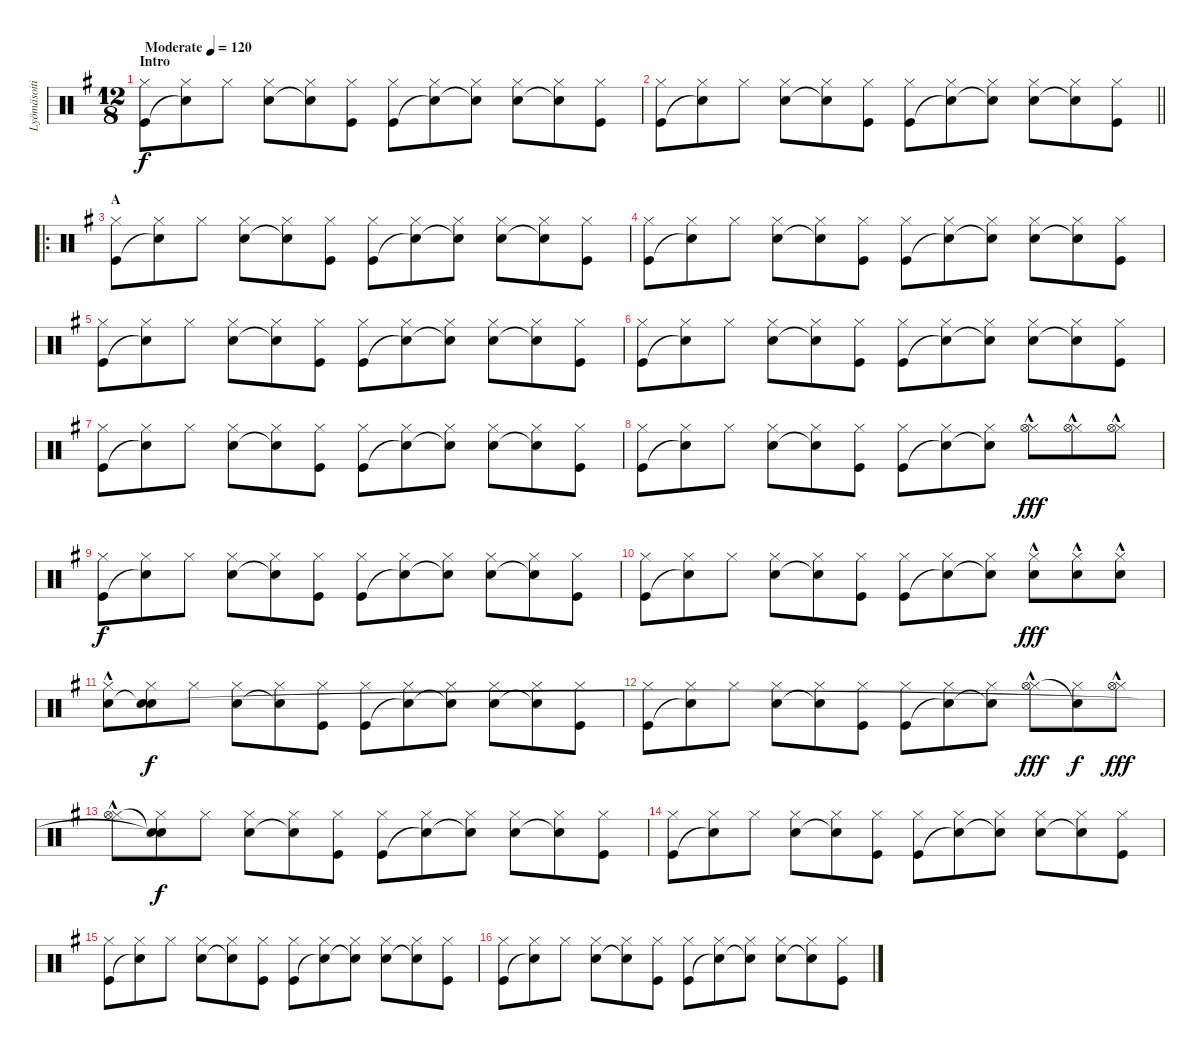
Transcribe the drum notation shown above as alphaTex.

\track ("Lyömäsoitin" "Lyömäsoiti") {instrument percussion}
\staff {score}
\articulation defaults
\ts (12 8)
\section ("" "Intro")
\tempo (120 "Moderate")
\clef neutral
\ks g
("Hi-Hat (closed)" "Kick (hit)").8{dy f} ("Hi-Hat (closed)" "Snare (hit)"{t}).8 "Hi-Hat (closed)".8 ("Hi-Hat (closed)" "Snare (hit) 2").8 ("Hi-Hat (closed)" "Snare (hit)"{t}).8 ("Hi-Hat (closed)" "Kick (hit)").8 ("Hi-Hat (closed)" "Kick (hit)").8 ("Hi-Hat (closed)" "Snare (hit)"{t}).8 ("Hi-Hat (closed)" "Snare (hit)"{t}).8 ("Hi-Hat (closed)" "Snare (hit) 2").8 ("Hi-Hat (closed)" "Snare (hit)"{t}).8 ("Hi-Hat (closed)" "Kick (hit)").8 |
\barLineRight lightlight
("Hi-Hat (closed)" "Kick (hit)").8 ("Hi-Hat (closed)" "Snare (hit)"{t}).8 "Hi-Hat (closed)".8 ("Hi-Hat (closed)" "Snare (hit) 2").8 ("Hi-Hat (closed)" "Snare (hit)"{t}).8 ("Hi-Hat (closed)" "Kick (hit)").8 ("Hi-Hat (closed)" "Kick (hit)").8 ("Hi-Hat (closed)" "Snare (hit)"{t}).8 ("Hi-Hat (closed)" "Snare (hit)"{t}).8 ("Hi-Hat (closed)" "Snare (hit) 2").8 ("Hi-Hat (closed)" "Snare (hit)"{t}).8 ("Hi-Hat (closed)" "Kick (hit)").8 |
\ro
\section ("" "A")
("Hi-Hat (closed)" "Kick (hit)").8 ("Hi-Hat (closed)" "Snare (hit)"{t}).8 "Hi-Hat (closed)".8 ("Hi-Hat (closed)" "Snare (hit) 2").8 ("Hi-Hat (closed)" "Snare (hit)"{t}).8 ("Hi-Hat (closed)" "Kick (hit)").8 ("Hi-Hat (closed)" "Kick (hit)").8 ("Hi-Hat (closed)" "Snare (hit)"{t}).8 ("Hi-Hat (closed)" "Snare (hit)"{t}).8 ("Hi-Hat (closed)" "Snare (hit) 2").8 ("Hi-Hat (closed)" "Snare (hit)"{t}).8 ("Hi-Hat (closed)" "Kick (hit)").8 |
("Hi-Hat (closed)" "Kick (hit)").8 ("Hi-Hat (closed)" "Snare (hit)"{t}).8 "Hi-Hat (closed)".8 ("Hi-Hat (closed)" "Snare (hit) 2").8 ("Hi-Hat (closed)" "Snare (hit)"{t}).8 ("Hi-Hat (closed)" "Kick (hit)").8 ("Hi-Hat (closed)" "Kick (hit)").8 ("Hi-Hat (closed)" "Snare (hit)"{t}).8 ("Hi-Hat (closed)" "Snare (hit)"{t}).8 ("Hi-Hat (closed)" "Snare (hit) 2").8 ("Hi-Hat (closed)" "Snare (hit)"{t}).8 ("Hi-Hat (closed)" "Kick (hit)").8 |
("Hi-Hat (closed)" "Kick (hit)").8 ("Hi-Hat (closed)" "Snare (hit)"{t}).8 "Hi-Hat (closed)".8 ("Hi-Hat (closed)" "Snare (hit) 2").8 ("Hi-Hat (closed)" "Snare (hit)"{t}).8 ("Hi-Hat (closed)" "Kick (hit)").8 ("Hi-Hat (closed)" "Kick (hit)").8 ("Hi-Hat (closed)" "Snare (hit)"{t}).8 ("Hi-Hat (closed)" "Snare (hit)"{t}).8 ("Hi-Hat (closed)" "Snare (hit) 2").8 ("Hi-Hat (closed)" "Snare (hit)"{t}).8 ("Hi-Hat (closed)" "Kick (hit)").8 |
("Hi-Hat (closed)" "Kick (hit)").8 ("Hi-Hat (closed)" "Snare (hit)"{t}).8 "Hi-Hat (closed)".8 ("Hi-Hat (closed)" "Snare (hit) 2").8 ("Hi-Hat (closed)" "Snare (hit)"{t}).8 ("Hi-Hat (closed)" "Kick (hit)").8 ("Hi-Hat (closed)" "Kick (hit)").8 ("Hi-Hat (closed)" "Snare (hit)"{t}).8 ("Hi-Hat (closed)" "Snare (hit)"{t}).8 ("Hi-Hat (closed)" "Snare (hit) 2").8 ("Hi-Hat (closed)" "Snare (hit)"{t}).8 ("Hi-Hat (closed)" "Kick (hit)").8 |
("Hi-Hat (closed)" "Kick (hit)").8 ("Hi-Hat (closed)" "Snare (hit)"{t}).8 "Hi-Hat (closed)".8 ("Hi-Hat (closed)" "Snare (hit) 2").8 ("Hi-Hat (closed)" "Snare (hit)"{t}).8 ("Hi-Hat (closed)" "Kick (hit)").8 ("Hi-Hat (closed)" "Kick (hit)").8 ("Hi-Hat (closed)" "Snare (hit)"{t}).8 ("Hi-Hat (closed)" "Snare (hit)"{t}).8 ("Hi-Hat (closed)" "Snare (hit) 2").8 ("Hi-Hat (closed)" "Snare (hit)"{t}).8 ("Hi-Hat (closed)" "Kick (hit)").8 |
("Hi-Hat (closed)" "Kick (hit)").8 ("Hi-Hat (closed)" "Snare (hit)"{t}).8 "Hi-Hat (closed)".8 ("Hi-Hat (closed)" "Snare (hit) 2").8 ("Hi-Hat (closed)" "Snare (hit)"{t}).8 ("Hi-Hat (closed)" "Kick (hit)").8 ("Hi-Hat (closed)" "Kick (hit)").8 ("Hi-Hat (closed)" "Snare (hit)"{t}).8 ("Hi-Hat (closed)" "Snare (hit)"{t}).8 ("Hi-Hat (closed)"{hac} "Hi-Hat (open)").8{dy fff} ("Hi-Hat (closed)"{hac} "Hi-Hat (open)").8 ("Hi-Hat (closed)"{hac} "Hi-Hat (open)").8 |
("Hi-Hat (closed)" "Kick (hit)").8{dy f} ("Hi-Hat (closed)" "Snare (hit)"{t}).8 "Hi-Hat (closed)".8 ("Hi-Hat (closed)" "Snare (hit) 2").8 ("Hi-Hat (closed)" "Snare (hit)"{t}).8 ("Hi-Hat (closed)" "Kick (hit)").8 ("Hi-Hat (closed)" "Kick (hit)").8 ("Hi-Hat (closed)" "Snare (hit)"{t}).8 ("Hi-Hat (closed)" "Snare (hit)"{t}).8 ("Hi-Hat (closed)" "Snare (hit) 2").8 ("Hi-Hat (closed)" "Snare (hit)"{t}).8 ("Hi-Hat (closed)" "Kick (hit)").8 |
("Hi-Hat (closed)" "Kick (hit)").8 ("Hi-Hat (closed)" "Snare (hit)"{t}).8 "Hi-Hat (closed)".8 ("Hi-Hat (closed)" "Snare (hit) 2").8 ("Hi-Hat (closed)" "Snare (hit)"{t}).8 ("Hi-Hat (closed)" "Kick (hit)").8 ("Hi-Hat (closed)" "Kick (hit)").8 ("Hi-Hat (closed)" "Snare (hit)"{t}).8 ("Hi-Hat (closed)" "Snare (hit)"{t}).8 ("Hi-Hat (closed)" "Snare (hit) 2"{hac}).8{dy fff} ("Hi-Hat (closed)" "Snare (hit) 2"{hac}).8 ("Hi-Hat (closed)" "Snare (hit) 2"{hac}).8 |
("Hi-Hat (closed)" "Snare (hit) 2"{hac}).8 ("Hi-Hat (closed)" "Snare (hit)"{t} "Snare (hit)").8{dy f} "Hi-Hat (closed)".8 ("Hi-Hat (closed)" "Snare (hit) 2").8 ("Hi-Hat (closed)" "Snare (hit)"{t}).8 ("Hi-Hat (closed)" "Kick (hit)").8 ("Hi-Hat (closed)" "Kick (hit)").8 ("Hi-Hat (closed)" "Snare (hit)"{t}).8 ("Hi-Hat (closed)" "Snare (hit)"{t}).8 ("Hi-Hat (closed)" "Snare (hit) 2").8 ("Hi-Hat (closed)" "Snare (hit)"{t}).8 ("Hi-Hat (closed)" "Kick (hit)").8 |
("Hi-Hat (closed)" "Kick (hit)").8 ("Hi-Hat (closed)" "Snare (hit)"{t}).8 "Hi-Hat (closed)".8 ("Hi-Hat (closed)" "Snare (hit) 2").8 ("Hi-Hat (closed)" "Snare (hit)"{t}).8 ("Hi-Hat (closed)" "Kick (hit)").8 ("Hi-Hat (closed)" "Kick (hit)").8 ("Hi-Hat (closed)" "Snare (hit)"{t}).8 ("Hi-Hat (closed)" "Snare (hit)"{t}).8 ("Hi-Hat (closed)" "Hi-Hat (open)"{hac}).8{dy fff} ("Hi-Hat (closed)" "Snare (hit)"{t}).8{dy f} ("Hi-Hat (closed)" "Hi-Hat (open)"{hac}).8{dy fff} |
("Hi-Hat (closed)" "Hi-Hat (open)"{hac}).8 ("Hi-Hat (closed)" "Snare (hit)"{t} "Snare (hit)"{t}).8{dy f} "Hi-Hat (closed)".8 ("Hi-Hat (closed)" "Snare (hit) 2").8 ("Hi-Hat (closed)" "Snare (hit)"{t}).8 ("Hi-Hat (closed)" "Kick (hit)").8 ("Hi-Hat (closed)" "Kick (hit)").8 ("Hi-Hat (closed)" "Snare (hit)"{t}).8 ("Hi-Hat (closed)" "Snare (hit)"{t}).8 ("Hi-Hat (closed)" "Snare (hit) 2").8 ("Hi-Hat (closed)" "Snare (hit)"{t}).8 ("Hi-Hat (closed)" "Kick (hit)").8 |
("Hi-Hat (closed)" "Kick (hit)").8 ("Hi-Hat (closed)" "Snare (hit)"{t}).8 "Hi-Hat (closed)".8 ("Hi-Hat (closed)" "Snare (hit) 2").8 ("Hi-Hat (closed)" "Snare (hit)"{t}).8 ("Hi-Hat (closed)" "Kick (hit)").8 ("Hi-Hat (closed)" "Kick (hit)").8 ("Hi-Hat (closed)" "Snare (hit)"{t}).8 ("Hi-Hat (closed)" "Snare (hit)"{t}).8 ("Hi-Hat (closed)" "Snare (hit) 2").8 ("Hi-Hat (closed)" "Snare (hit)"{t}).8 ("Hi-Hat (closed)" "Kick (hit)").8 |
("Hi-Hat (closed)" "Kick (hit)").8 ("Hi-Hat (closed)" "Snare (hit)"{t}).8 "Hi-Hat (closed)".8 ("Hi-Hat (closed)" "Snare (hit) 2").8 ("Hi-Hat (closed)" "Snare (hit)"{t}).8 ("Hi-Hat (closed)" "Kick (hit)").8 ("Hi-Hat (closed)" "Kick (hit)").8 ("Hi-Hat (closed)" "Snare (hit)"{t}).8 ("Hi-Hat (closed)" "Snare (hit)"{t}).8 ("Hi-Hat (closed)" "Snare (hit) 2").8 ("Hi-Hat (closed)" "Snare (hit)"{t}).8 ("Hi-Hat (closed)" "Kick (hit)").8 |
("Hi-Hat (closed)" "Kick (hit)").8 ("Hi-Hat (closed)" "Snare (hit)"{t}).8 "Hi-Hat (closed)".8 ("Hi-Hat (closed)" "Snare (hit) 2").8 ("Hi-Hat (closed)" "Snare (hit)"{t}).8 ("Hi-Hat (closed)" "Kick (hit)").8 ("Hi-Hat (closed)" "Kick (hit)").8 ("Hi-Hat (closed)" "Snare (hit)"{t}).8 ("Hi-Hat (closed)" "Snare (hit)"{t}).8 ("Hi-Hat (closed)" "Snare (hit) 2").8 ("Hi-Hat (closed)" "Snare (hit)"{t}).8 ("Hi-Hat (closed)" "Kick (hit)").8
